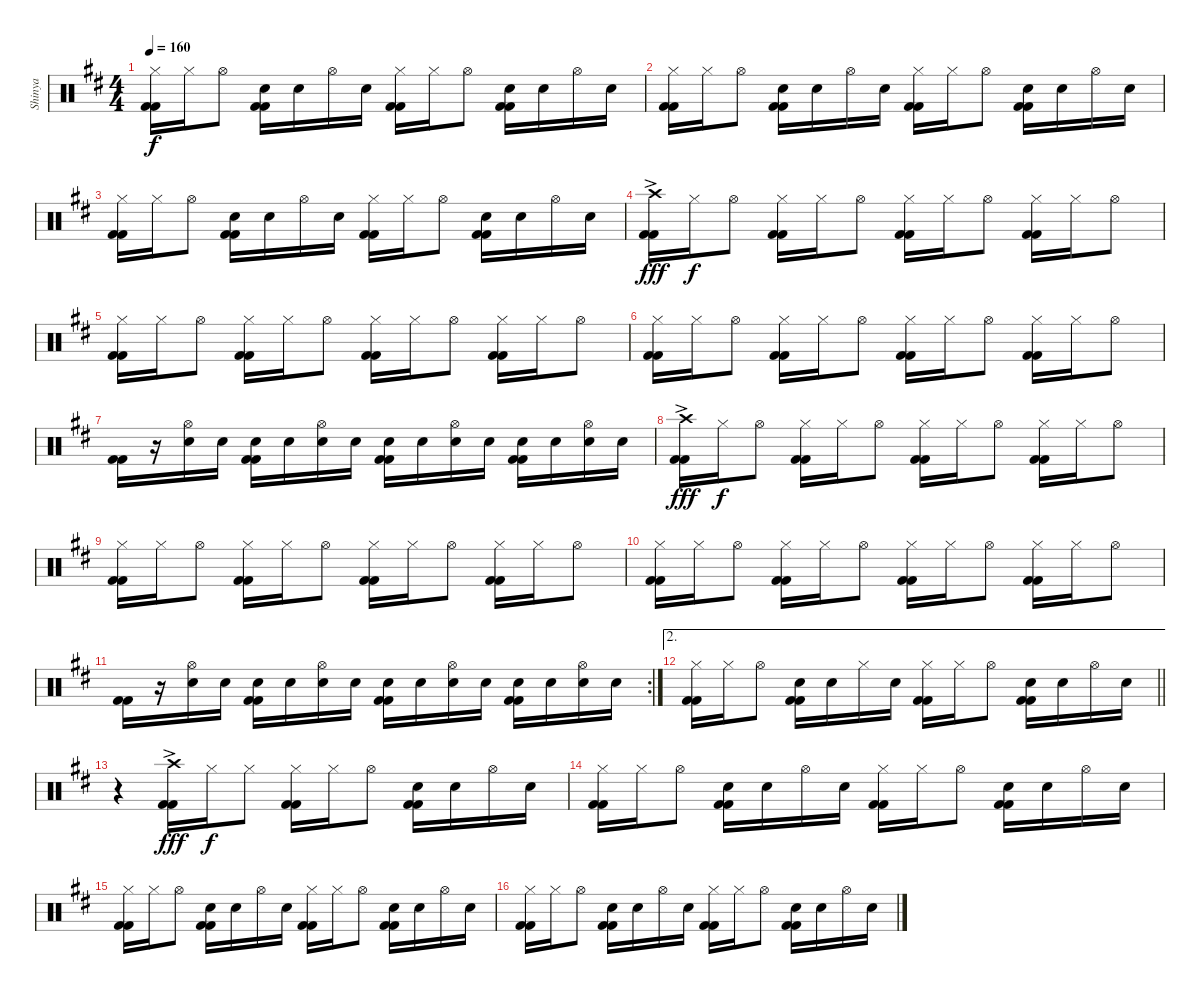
\track ("Shinya " "Shinya ") {instrument percussion}
\staff {score}
\articulation defaults
\ts (4 4)
\tempo 160
\clef neutral
\ks d
("Hi-Hat (closed)" "Kick (hit) 2" "Kick (hit) 2").16{dy f} "Hi-Hat (closed)".16 "Hi-Hat (open)".8 ("Snare (hit) 2" "Kick (hit) 2" "Kick (hit) 2").16 "Snare (hit) 2".16 "Hi-Hat (open)".16 "Snare (hit) 2".16 ("Hi-Hat (closed)" "Kick (hit) 2" "Kick (hit) 2").16 "Hi-Hat (closed)".16 "Hi-Hat (open)".8 ("Snare (hit) 2" "Kick (hit) 2" "Kick (hit) 2").16 "Snare (hit) 2".16 "Hi-Hat (open)".16 "Snare (hit) 2".16 |
("Hi-Hat (closed)" "Kick (hit) 2" "Kick (hit) 2").16 "Hi-Hat (closed)".16 "Hi-Hat (open)".8 ("Snare (hit) 2" "Kick (hit) 2" "Kick (hit) 2").16 "Snare (hit) 2".16 "Hi-Hat (open)".16 "Snare (hit) 2".16 ("Hi-Hat (closed)" "Kick (hit) 2" "Kick (hit) 2").16 "Hi-Hat (closed)".16 "Hi-Hat (open)".8 ("Snare (hit) 2" "Kick (hit) 2" "Kick (hit) 2").16 "Snare (hit) 2".16 "Hi-Hat (open)".16 "Snare (hit) 2".16 |
("Hi-Hat (closed)" "Kick (hit) 2" "Kick (hit) 2").16 "Hi-Hat (closed)".16 "Hi-Hat (open)".8 ("Snare (hit) 2" "Kick (hit) 2" "Kick (hit) 2").16 "Snare (hit) 2".16 "Hi-Hat (open)".16 "Snare (hit) 2".16 ("Hi-Hat (closed)" "Kick (hit) 2" "Kick (hit) 2").16 "Hi-Hat (closed)".16 "Hi-Hat (open)".8 ("Snare (hit) 2" "Kick (hit) 2" "Kick (hit) 2").16 "Snare (hit) 2".16 "Hi-Hat (open)".16 "Snare (hit) 2".16 |
("Crash high (hit)"{ac} "Kick (hit) 2" "Kick (hit) 2").16{dy fff} "Hi-Hat (closed)".16{dy f} "Hi-Hat (open)".8 ("Hi-Hat (closed)" "Kick (hit) 2" "Kick (hit) 2").16 "Hi-Hat (closed)".16 "Hi-Hat (open)".8 ("Hi-Hat (closed)" "Kick (hit) 2" "Kick (hit) 2").16 "Hi-Hat (closed)".16 "Hi-Hat (open)".8 ("Hi-Hat (closed)" "Kick (hit) 2" "Kick (hit) 2").16 "Hi-Hat (closed)".16 "Hi-Hat (open)".8 |
("Hi-Hat (closed)" "Kick (hit) 2" "Kick (hit) 2").16 "Hi-Hat (closed)".16 "Hi-Hat (open)".8 ("Hi-Hat (closed)" "Kick (hit) 2" "Kick (hit) 2").16 "Hi-Hat (closed)".16 "Hi-Hat (open)".8 ("Hi-Hat (closed)" "Kick (hit) 2" "Kick (hit) 2").16 "Hi-Hat (closed)".16 "Hi-Hat (open)".8 ("Hi-Hat (closed)" "Kick (hit) 2" "Kick (hit) 2").16 "Hi-Hat (closed)".16 "Hi-Hat (open)".8 |
("Hi-Hat (closed)" "Kick (hit) 2" "Kick (hit) 2").16 "Hi-Hat (closed)".16 "Hi-Hat (open)".8 ("Hi-Hat (closed)" "Kick (hit) 2" "Kick (hit) 2").16 "Hi-Hat (closed)".16 "Hi-Hat (open)".8 ("Hi-Hat (closed)" "Kick (hit) 2" "Kick (hit) 2").16 "Hi-Hat (closed)".16 "Hi-Hat (open)".8 ("Hi-Hat (closed)" "Kick (hit) 2" "Kick (hit) 2").16 "Hi-Hat (closed)".16 "Hi-Hat (open)".8 |
("Kick (hit) 2" "Kick (hit) 2").16 r.16 ("Hi-Hat (open)" "Snare (hit) 2").16 "Snare (hit) 2".16 ("Snare (hit) 2" "Kick (hit) 2" "Kick (hit) 2").16 "Snare (hit) 2".16 ("Hi-Hat (open)" "Snare (hit) 2").16 "Snare (hit) 2".16 ("Snare (hit) 2" "Kick (hit) 2" "Kick (hit) 2").16 "Snare (hit) 2".16 ("Hi-Hat (open)" "Snare (hit) 2").16 "Snare (hit) 2".16 ("Snare (hit) 2" "Kick (hit) 2" "Kick (hit) 2").16 "Snare (hit) 2".16 ("Hi-Hat (open)" "Snare (hit) 2").16 "Snare (hit) 2".16 |
("Crash high (hit)"{ac} "Kick (hit) 2" "Kick (hit) 2").16{dy fff} "Hi-Hat (closed)".16{dy f} "Hi-Hat (open)".8 ("Hi-Hat (closed)" "Kick (hit) 2" "Kick (hit) 2").16 "Hi-Hat (closed)".16 "Hi-Hat (open)".8 ("Hi-Hat (closed)" "Kick (hit) 2" "Kick (hit) 2").16 "Hi-Hat (closed)".16 "Hi-Hat (open)".8 ("Hi-Hat (closed)" "Kick (hit) 2" "Kick (hit) 2").16 "Hi-Hat (closed)".16 "Hi-Hat (open)".8 |
("Hi-Hat (closed)" "Kick (hit) 2" "Kick (hit) 2").16 "Hi-Hat (closed)".16 "Hi-Hat (open)".8 ("Hi-Hat (closed)" "Kick (hit) 2" "Kick (hit) 2").16 "Hi-Hat (closed)".16 "Hi-Hat (open)".8 ("Hi-Hat (closed)" "Kick (hit) 2" "Kick (hit) 2").16 "Hi-Hat (closed)".16 "Hi-Hat (open)".8 ("Hi-Hat (closed)" "Kick (hit) 2" "Kick (hit) 2").16 "Hi-Hat (closed)".16 "Hi-Hat (open)".8 |
("Hi-Hat (closed)" "Kick (hit) 2" "Kick (hit) 2").16 "Hi-Hat (closed)".16 "Hi-Hat (open)".8 ("Hi-Hat (closed)" "Kick (hit) 2" "Kick (hit) 2").16 "Hi-Hat (closed)".16 "Hi-Hat (open)".8 ("Hi-Hat (closed)" "Kick (hit) 2" "Kick (hit) 2").16 "Hi-Hat (closed)".16 "Hi-Hat (open)".8 ("Hi-Hat (closed)" "Kick (hit) 2" "Kick (hit) 2").16 "Hi-Hat (closed)".16 "Hi-Hat (open)".8 |
\rc 2
("Kick (hit) 2" "Kick (hit) 2").16 r.16 ("Hi-Hat (open)" "Snare (hit) 2").16 "Snare (hit) 2".16 ("Snare (hit) 2" "Kick (hit) 2" "Kick (hit) 2").16 "Snare (hit) 2".16 ("Hi-Hat (open)" "Snare (hit) 2").16 "Snare (hit) 2".16 ("Snare (hit) 2" "Kick (hit) 2" "Kick (hit) 2").16 "Snare (hit) 2".16 ("Hi-Hat (open)" "Snare (hit) 2").16 "Snare (hit) 2".16 ("Snare (hit) 2" "Kick (hit) 2" "Kick (hit) 2").16 "Snare (hit) 2".16 ("Hi-Hat (open)" "Snare (hit) 2").16 "Snare (hit) 2".16 |
\ae 2
\barLineRight lightlight
("Hi-Hat (closed)" "Kick (hit) 2" "Kick (hit) 2").16 "Hi-Hat (closed)".16 "Hi-Hat (open)".8 ("Snare (hit) 2" "Kick (hit) 2" "Kick (hit) 2").16 "Snare (hit) 2".16 "Hi-Hat (closed)".16 "Snare (hit) 2".16 ("Hi-Hat (closed)" "Kick (hit) 2" "Kick (hit) 2").16 "Hi-Hat (closed)".16 "Hi-Hat (open)".8 ("Snare (hit) 2" "Kick (hit) 2" "Kick (hit) 2").16 "Snare (hit) 2".16 "Hi-Hat (open)".16 "Snare (hit) 2".16 |
r.4 ("Crash high (hit)"{ac} "Kick (hit) 2" "Kick (hit) 2").16{dy fff} "Hi-Hat (closed)".16{dy f} "Hi-Hat (closed)".8 ("Hi-Hat (closed)" "Kick (hit) 2" "Kick (hit) 2").16 "Hi-Hat (closed)".16 "Hi-Hat (open)".8 ("Snare (hit) 2" "Kick (hit) 2" "Kick (hit) 2").16 "Snare (hit) 2".16 "Hi-Hat (open)".16 "Snare (hit) 2".16 |
("Hi-Hat (closed)" "Kick (hit) 2" "Kick (hit) 2").16 "Hi-Hat (closed)".16 "Hi-Hat (open)".8 ("Snare (hit) 2" "Kick (hit) 2" "Kick (hit) 2").16 "Snare (hit) 2".16 "Hi-Hat (open)".16 "Snare (hit) 2".16 ("Hi-Hat (closed)" "Kick (hit) 2" "Kick (hit) 2").16 "Hi-Hat (closed)".16 "Hi-Hat (open)".8 ("Snare (hit) 2" "Kick (hit) 2" "Kick (hit) 2").16 "Snare (hit) 2".16 "Hi-Hat (open)".16 "Snare (hit) 2".16 |
("Hi-Hat (closed)" "Kick (hit) 2" "Kick (hit) 2").16 "Hi-Hat (closed)".16 "Hi-Hat (open)".8 ("Snare (hit) 2" "Kick (hit) 2" "Kick (hit) 2").16 "Snare (hit) 2".16 "Hi-Hat (open)".16 "Snare (hit) 2".16 ("Hi-Hat (closed)" "Kick (hit) 2" "Kick (hit) 2").16 "Hi-Hat (closed)".16 "Hi-Hat (open)".8 ("Snare (hit) 2" "Kick (hit) 2" "Kick (hit) 2").16 "Snare (hit) 2".16 "Hi-Hat (open)".16 "Snare (hit) 2".16 |
("Hi-Hat (closed)" "Kick (hit) 2" "Kick (hit) 2").16 "Hi-Hat (closed)".16 "Hi-Hat (open)".8 ("Snare (hit) 2" "Kick (hit) 2" "Kick (hit) 2").16 "Snare (hit) 2".16 "Hi-Hat (open)".16 "Snare (hit) 2".16 ("Hi-Hat (closed)" "Kick (hit) 2" "Kick (hit) 2").16 "Hi-Hat (closed)".16 "Hi-Hat (open)".8 ("Snare (hit) 2" "Kick (hit) 2" "Kick (hit) 2").16 "Snare (hit) 2".16 "Hi-Hat (open)".16 "Snare (hit) 2".16
